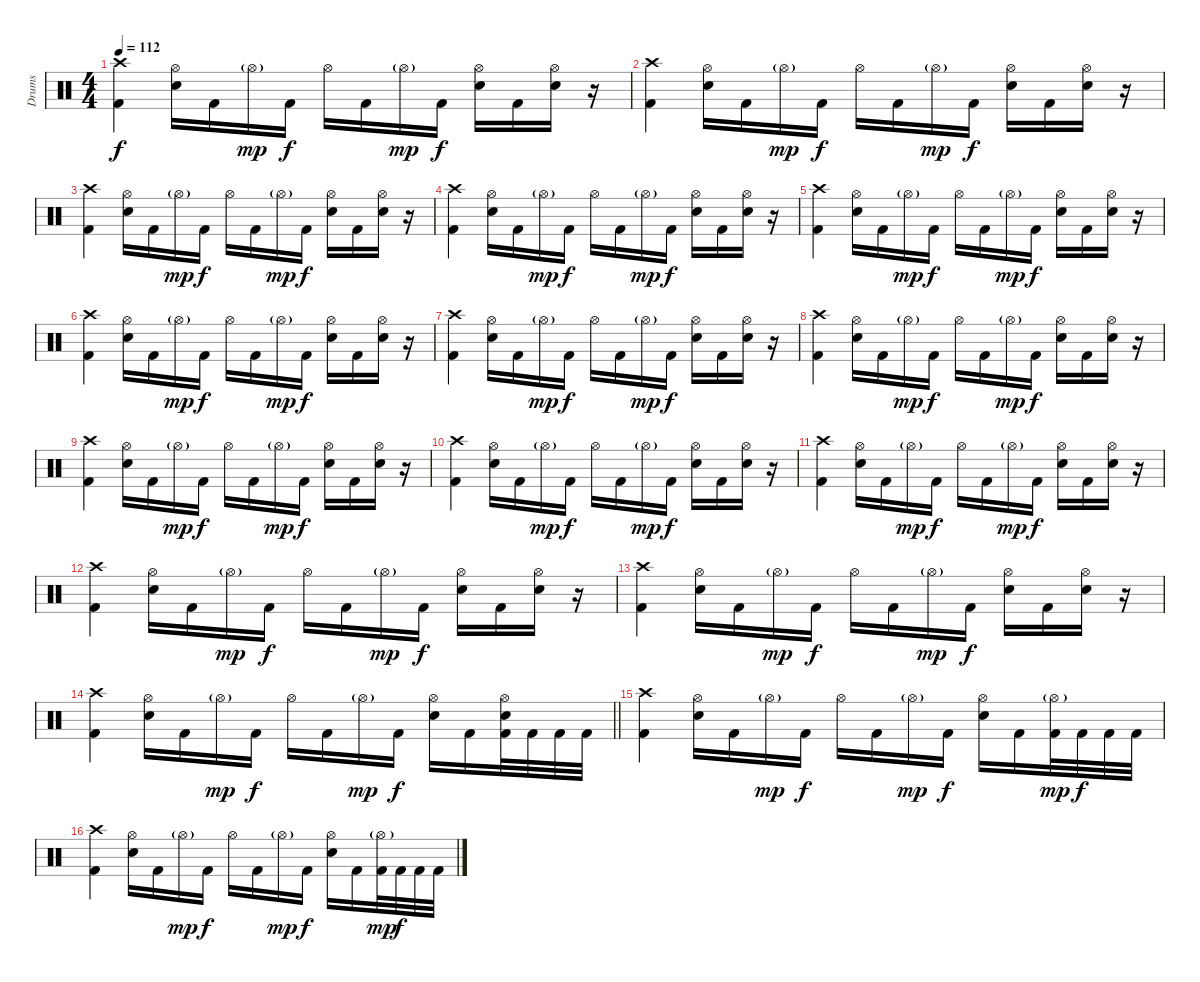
\track ("Drums" "Drums") {instrument percussion}
\staff {score}
\articulation defaults
\ts (4 4)
\tempo 112
\clef neutral
\ks c
("Crash high (hit)" "Kick (hit) 2").4{dy f} ("Hi-Hat (open)" "Electric Snare (hit)").16 "Kick (hit) 2".16 "Hi-Hat (open)"{g}.16{dy mp} "Kick (hit) 2".16{dy f} "Hi-Hat (open)".16 "Kick (hit) 2".16 "Hi-Hat (open)"{g}.16{dy mp} "Kick (hit) 2".16{dy f} ("Hi-Hat (open)" "Electric Snare (hit)").16 "Kick (hit) 2".16 ("Hi-Hat (open)" "Electric Snare (hit)").16 r.16 |
("Crash high (hit)" "Kick (hit) 2").4 ("Hi-Hat (open)" "Electric Snare (hit)").16 "Kick (hit) 2".16 "Hi-Hat (open)"{g}.16{dy mp} "Kick (hit) 2".16{dy f} "Hi-Hat (open)".16 "Kick (hit) 2".16 "Hi-Hat (open)"{g}.16{dy mp} "Kick (hit) 2".16{dy f} ("Hi-Hat (open)" "Electric Snare (hit)").16 "Kick (hit) 2".16 ("Hi-Hat (open)" "Electric Snare (hit)").16 r.16 |
("Crash high (hit)" "Kick (hit) 2").4 ("Hi-Hat (open)" "Electric Snare (hit)").16 "Kick (hit) 2".16 "Hi-Hat (open)"{g}.16{dy mp} "Kick (hit) 2".16{dy f} "Hi-Hat (open)".16 "Kick (hit) 2".16 "Hi-Hat (open)"{g}.16{dy mp} "Kick (hit) 2".16{dy f} ("Hi-Hat (open)" "Electric Snare (hit)").16 "Kick (hit) 2".16 ("Hi-Hat (open)" "Electric Snare (hit)").16 r.16 |
("Crash high (hit)" "Kick (hit) 2").4 ("Hi-Hat (open)" "Electric Snare (hit)").16 "Kick (hit) 2".16 "Hi-Hat (open)"{g}.16{dy mp} "Kick (hit) 2".16{dy f} "Hi-Hat (open)".16 "Kick (hit) 2".16 "Hi-Hat (open)"{g}.16{dy mp} "Kick (hit) 2".16{dy f} ("Hi-Hat (open)" "Electric Snare (hit)").16 "Kick (hit) 2".16 ("Hi-Hat (open)" "Electric Snare (hit)").16 r.16 |
("Crash high (hit)" "Kick (hit) 2").4 ("Hi-Hat (open)" "Electric Snare (hit)").16 "Kick (hit) 2".16 "Hi-Hat (open)"{g}.16{dy mp} "Kick (hit) 2".16{dy f} "Hi-Hat (open)".16 "Kick (hit) 2".16 "Hi-Hat (open)"{g}.16{dy mp} "Kick (hit) 2".16{dy f} ("Hi-Hat (open)" "Electric Snare (hit)").16 "Kick (hit) 2".16 ("Hi-Hat (open)" "Electric Snare (hit)").16 r.16 |
("Crash high (hit)" "Kick (hit) 2").4 ("Hi-Hat (open)" "Electric Snare (hit)").16 "Kick (hit) 2".16 "Hi-Hat (open)"{g}.16{dy mp} "Kick (hit) 2".16{dy f} "Hi-Hat (open)".16 "Kick (hit) 2".16 "Hi-Hat (open)"{g}.16{dy mp} "Kick (hit) 2".16{dy f} ("Hi-Hat (open)" "Electric Snare (hit)").16 "Kick (hit) 2".16 ("Hi-Hat (open)" "Electric Snare (hit)").16 r.16 |
("Crash high (hit)" "Kick (hit) 2").4 ("Hi-Hat (open)" "Electric Snare (hit)").16 "Kick (hit) 2".16 "Hi-Hat (open)"{g}.16{dy mp} "Kick (hit) 2".16{dy f} "Hi-Hat (open)".16 "Kick (hit) 2".16 "Hi-Hat (open)"{g}.16{dy mp} "Kick (hit) 2".16{dy f} ("Hi-Hat (open)" "Electric Snare (hit)").16 "Kick (hit) 2".16 ("Hi-Hat (open)" "Electric Snare (hit)").16 r.16 |
("Crash high (hit)" "Kick (hit) 2").4 ("Hi-Hat (open)" "Electric Snare (hit)").16 "Kick (hit) 2".16 "Hi-Hat (open)"{g}.16{dy mp} "Kick (hit) 2".16{dy f} "Hi-Hat (open)".16 "Kick (hit) 2".16 "Hi-Hat (open)"{g}.16{dy mp} "Kick (hit) 2".16{dy f} ("Hi-Hat (open)" "Electric Snare (hit)").16 "Kick (hit) 2".16 ("Hi-Hat (open)" "Electric Snare (hit)").16 r.16 |
("Crash high (hit)" "Kick (hit) 2").4 ("Hi-Hat (open)" "Electric Snare (hit)").16 "Kick (hit) 2".16 "Hi-Hat (open)"{g}.16{dy mp} "Kick (hit) 2".16{dy f} "Hi-Hat (open)".16 "Kick (hit) 2".16 "Hi-Hat (open)"{g}.16{dy mp} "Kick (hit) 2".16{dy f} ("Hi-Hat (open)" "Electric Snare (hit)").16 "Kick (hit) 2".16 ("Hi-Hat (open)" "Electric Snare (hit)").16 r.16 |
("Crash high (hit)" "Kick (hit) 2").4 ("Hi-Hat (open)" "Electric Snare (hit)").16 "Kick (hit) 2".16 "Hi-Hat (open)"{g}.16{dy mp} "Kick (hit) 2".16{dy f} "Hi-Hat (open)".16 "Kick (hit) 2".16 "Hi-Hat (open)"{g}.16{dy mp} "Kick (hit) 2".16{dy f} ("Hi-Hat (open)" "Electric Snare (hit)").16 "Kick (hit) 2".16 ("Hi-Hat (open)" "Electric Snare (hit)").16 r.16 |
("Crash high (hit)" "Kick (hit) 2").4 ("Hi-Hat (open)" "Electric Snare (hit)").16 "Kick (hit) 2".16 "Hi-Hat (open)"{g}.16{dy mp} "Kick (hit) 2".16{dy f} "Hi-Hat (open)".16 "Kick (hit) 2".16 "Hi-Hat (open)"{g}.16{dy mp} "Kick (hit) 2".16{dy f} ("Hi-Hat (open)" "Electric Snare (hit)").16 "Kick (hit) 2".16 ("Hi-Hat (open)" "Electric Snare (hit)").16 r.16 |
("Crash high (hit)" "Kick (hit) 2").4 ("Hi-Hat (open)" "Electric Snare (hit)").16 "Kick (hit) 2".16 "Hi-Hat (open)"{g}.16{dy mp} "Kick (hit) 2".16{dy f} "Hi-Hat (open)".16 "Kick (hit) 2".16 "Hi-Hat (open)"{g}.16{dy mp} "Kick (hit) 2".16{dy f} ("Hi-Hat (open)" "Electric Snare (hit)").16 "Kick (hit) 2".16 ("Hi-Hat (open)" "Electric Snare (hit)").16 r.16 |
("Crash high (hit)" "Kick (hit) 2").4 ("Hi-Hat (open)" "Electric Snare (hit)").16 "Kick (hit) 2".16 "Hi-Hat (open)"{g}.16{dy mp} "Kick (hit) 2".16{dy f} "Hi-Hat (open)".16 "Kick (hit) 2".16 "Hi-Hat (open)"{g}.16{dy mp} "Kick (hit) 2".16{dy f} ("Hi-Hat (open)" "Electric Snare (hit)").16 "Kick (hit) 2".16 ("Hi-Hat (open)" "Electric Snare (hit)").16 r.16 |
\barLineRight lightlight
("Crash high (hit)" "Kick (hit) 2").4 ("Hi-Hat (open)" "Electric Snare (hit)").16 "Kick (hit) 2".16 "Hi-Hat (open)"{g}.16{dy mp} "Kick (hit) 2".16{dy f} "Hi-Hat (open)".16 "Kick (hit) 2".16 "Hi-Hat (open)"{g}.16{dy mp} "Kick (hit) 2".16{dy f} ("Hi-Hat (open)" "Electric Snare (hit)").16 "Kick (hit) 2".16 ("Hi-Hat (open)" "Electric Snare (hit)" "Kick (hit) 2").32 "Kick (hit) 2".32 "Kick (hit) 2".32 "Kick (hit) 2".32 |
("Crash high (hit)" "Kick (hit) 2").4 ("Hi-Hat (open)" "Electric Snare (hit)").16 "Kick (hit) 2".16 "Hi-Hat (open)"{g}.16{dy mp} "Kick (hit) 2".16{dy f} "Hi-Hat (open)".16 "Kick (hit) 2".16 "Hi-Hat (open)"{g}.16{dy mp} "Kick (hit) 2".16{dy f} ("Hi-Hat (open)" "Electric Snare (hit)").16 "Kick (hit) 2".16 ("Hi-Hat (open)"{g} "Kick (hit) 2").32{dy mp} "Kick (hit) 2".32{dy f} "Kick (hit) 2".32 "Kick (hit) 2".32 |
("Crash high (hit)" "Kick (hit) 2").4 ("Hi-Hat (open)" "Electric Snare (hit)").16 "Kick (hit) 2".16 "Hi-Hat (open)"{g}.16{dy mp} "Kick (hit) 2".16{dy f} "Hi-Hat (open)".16 "Kick (hit) 2".16 "Hi-Hat (open)"{g}.16{dy mp} "Kick (hit) 2".16{dy f} ("Hi-Hat (open)" "Electric Snare (hit)").16 "Kick (hit) 2".16 ("Hi-Hat (open)"{g} "Kick (hit) 2").32{dy mp} "Kick (hit) 2".32{dy f} "Kick (hit) 2".32 "Kick (hit) 2".32
